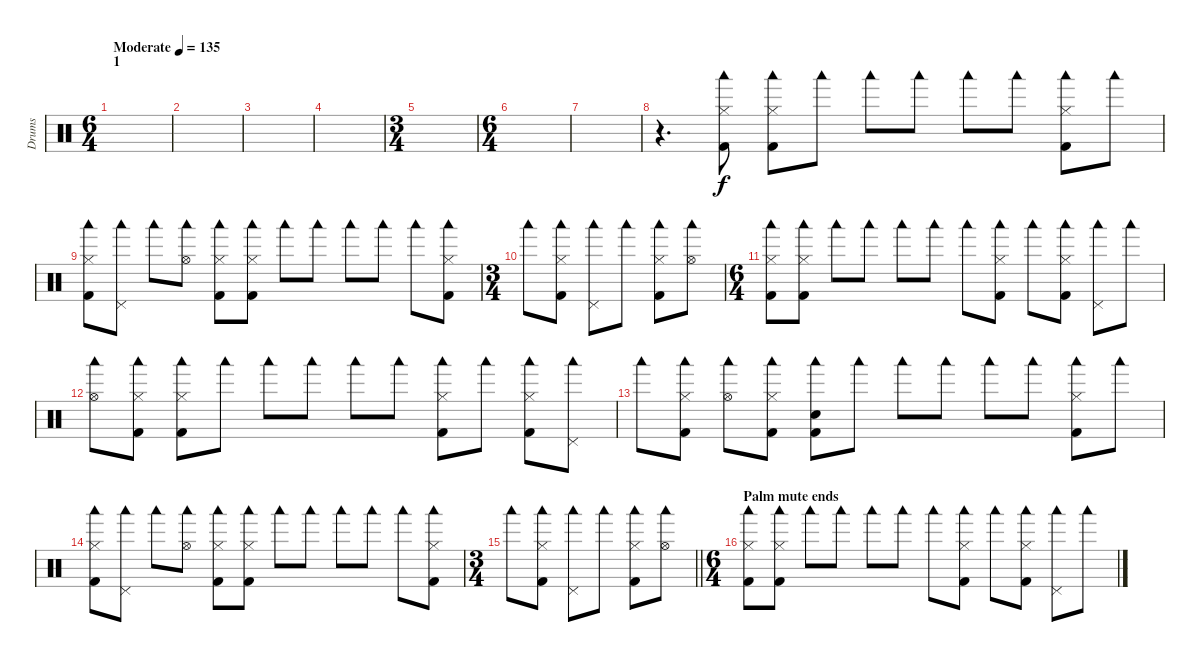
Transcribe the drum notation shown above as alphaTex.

\track ("Drums" "Drums") {instrument percussion}
\staff {score}
\articulation defaults
\ts (6 4)
\section ("" "1")
\tempo (135 "Moderate")
\clef neutral
\ks c
|
|
|
|
\ts (3 4)
|
\ts (6 4)
|
|
r.4{d} ("Hi-Hat (closed)" "Woodblock low (hit)" "Kick (hit) 2").8 ("Hi-Hat (closed)" "Woodblock low (hit)" "Kick (hit) 2").8 "Woodblock low (hit)".8 "Woodblock low (hit)".8 "Woodblock low (hit)".8 "Woodblock low (hit)".8 "Woodblock low (hit)".8 ("Hi-Hat (closed)" "Woodblock low (hit)" "Kick (hit) 2").8 "Woodblock low (hit)".8 |
("Hi-Hat (closed)" "Woodblock low (hit)" "Kick (hit) 2").8 ("Pedal Hi-Hat (hit)" "Woodblock low (hit)").8 "Woodblock low (hit)".8 ("Hi-Hat (open)" "Woodblock low (hit)").8 ("Hi-Hat (closed)" "Woodblock low (hit)" "Kick (hit) 2").8 ("Hi-Hat (closed)" "Woodblock low (hit)" "Kick (hit) 2").8 "Woodblock low (hit)".8 "Woodblock low (hit)".8 "Woodblock low (hit)".8 "Woodblock low (hit)".8 "Woodblock low (hit)".8 ("Hi-Hat (closed)" "Woodblock low (hit)" "Kick (hit) 2").8 |
\ts (3 4)
"Woodblock low (hit)".8 ("Hi-Hat (closed)" "Woodblock low (hit)" "Kick (hit) 2").8 ("Pedal Hi-Hat (hit)" "Woodblock low (hit)").8 "Woodblock low (hit)".8 ("Hi-Hat (closed)" "Woodblock low (hit)" "Kick (hit) 2").8 ("Hi-Hat (open)" "Woodblock low (hit)").8 |
\ts (6 4)
("Hi-Hat (closed)" "Woodblock low (hit)" "Kick (hit) 2").8 ("Hi-Hat (closed)" "Woodblock low (hit)" "Kick (hit) 2").8 "Woodblock low (hit)".8 "Woodblock low (hit)".8 "Woodblock low (hit)".8 "Woodblock low (hit)".8 "Woodblock low (hit)".8 ("Hi-Hat (closed)" "Woodblock low (hit)" "Kick (hit) 2").8 "Woodblock low (hit)".8 ("Hi-Hat (closed)" "Woodblock low (hit)" "Kick (hit) 2").8 ("Pedal Hi-Hat (hit)" "Woodblock low (hit)").8 "Woodblock low (hit)".8 |
("Hi-Hat (open)" "Woodblock low (hit)").8 ("Hi-Hat (closed)" "Woodblock low (hit)" "Kick (hit) 2").8 ("Hi-Hat (closed)" "Woodblock low (hit)" "Kick (hit) 2").8 "Woodblock low (hit)".8 "Woodblock low (hit)".8 "Woodblock low (hit)".8 "Woodblock low (hit)".8 "Woodblock low (hit)".8 ("Hi-Hat (closed)" "Woodblock low (hit)" "Kick (hit) 2").8 "Woodblock low (hit)".8 ("Hi-Hat (closed)" "Woodblock low (hit)" "Kick (hit) 2").8 ("Pedal Hi-Hat (hit)" "Woodblock low (hit)").8 |
"Woodblock low (hit)".8 ("Hi-Hat (closed)" "Woodblock low (hit)" "Kick (hit) 2").8 ("Hi-Hat (open)" "Woodblock low (hit)").8 ("Hi-Hat (closed)" "Woodblock low (hit)" "Kick (hit) 2").8 ("Snare (hit)" "Woodblock low (hit)" "Kick (hit) 2").8 "Woodblock low (hit)".8 "Woodblock low (hit)".8 "Woodblock low (hit)".8 "Woodblock low (hit)".8 "Woodblock low (hit)".8 ("Hi-Hat (closed)" "Woodblock low (hit)" "Kick (hit) 2").8 "Woodblock low (hit)".8 |
("Hi-Hat (closed)" "Woodblock low (hit)" "Kick (hit) 2").8 ("Pedal Hi-Hat (hit)" "Woodblock low (hit)").8 "Woodblock low (hit)".8 ("Hi-Hat (open)" "Woodblock low (hit)").8 ("Hi-Hat (closed)" "Woodblock low (hit)" "Kick (hit) 2").8 ("Hi-Hat (closed)" "Woodblock low (hit)" "Kick (hit) 2").8 "Woodblock low (hit)".8 "Woodblock low (hit)".8 "Woodblock low (hit)".8 "Woodblock low (hit)".8 "Woodblock low (hit)".8 ("Hi-Hat (closed)" "Woodblock low (hit)" "Kick (hit) 2").8 |
\ts (3 4)
\barLineRight lightlight "Woodblock low (hit)".8
("Hi-Hat (closed)" "Woodblock low (hit)" "Kick (hit) 2").8 ("Pedal Hi-Hat (hit)" "Woodblock low (hit)").8 "Woodblock low (hit)".8 ("Hi-Hat (closed)" "Woodblock low (hit)" "Kick (hit) 2").8 ("Hi-Hat (open)" "Woodblock low (hit)").8 |
\ts (6 4)
\section ("" "Palm mute ends")
("Hi-Hat (closed)" "Woodblock low (hit)" "Kick (hit) 2").8 ("Hi-Hat (closed)" "Woodblock low (hit)" "Kick (hit) 2").8 "Woodblock low (hit)".8 "Woodblock low (hit)".8 "Woodblock low (hit)".8 "Woodblock low (hit)".8 "Woodblock low (hit)".8 ("Hi-Hat (closed)" "Woodblock low (hit)" "Kick (hit) 2").8 "Woodblock low (hit)".8 ("Hi-Hat (closed)" "Woodblock low (hit)" "Kick (hit) 2").8 ("Pedal Hi-Hat (hit)" "Woodblock low (hit)").8 "Woodblock low (hit)".8
